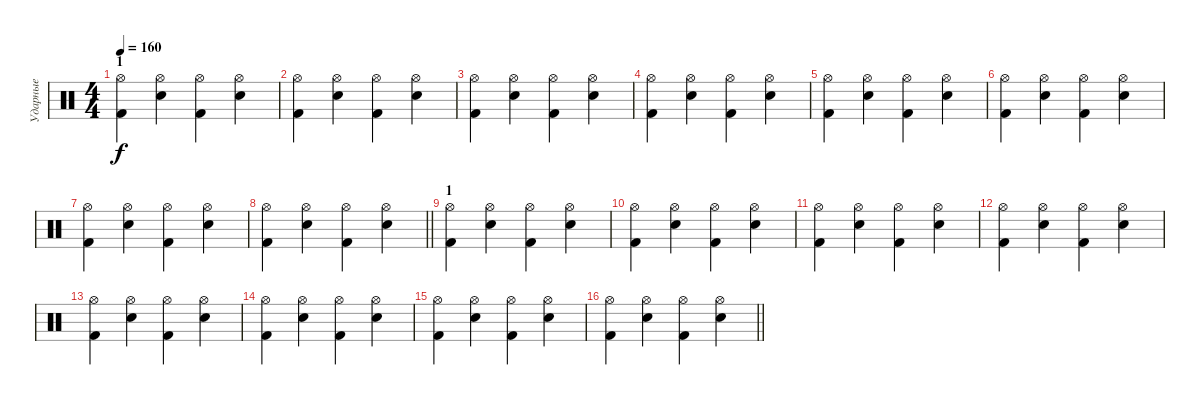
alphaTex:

\track ("Ударные" "Ударные") {instrument percussion}
\staff {score}
\articulation defaults
\ts (4 4)
\section ("" "1")
\tempo 160
\clef neutral
\ks c
("Hi-Hat (open)" "Kick (hit) 2").4{dy f} ("Hi-Hat (open)" "Electric Snare (hit)").4 ("Hi-Hat (open)" "Kick (hit) 2").4 ("Hi-Hat (open)" "Electric Snare (hit)").4 |
("Hi-Hat (open)" "Kick (hit) 2").4 ("Hi-Hat (open)" "Electric Snare (hit)").4 ("Hi-Hat (open)" "Kick (hit) 2").4 ("Hi-Hat (open)" "Electric Snare (hit)").4 |
("Hi-Hat (open)" "Kick (hit) 2").4 ("Hi-Hat (open)" "Electric Snare (hit)").4 ("Hi-Hat (open)" "Kick (hit) 2").4 ("Hi-Hat (open)" "Electric Snare (hit)").4 |
("Hi-Hat (open)" "Kick (hit) 2").4 ("Hi-Hat (open)" "Electric Snare (hit)").4 ("Hi-Hat (open)" "Kick (hit) 2").4 ("Hi-Hat (open)" "Electric Snare (hit)").4 |
("Hi-Hat (open)" "Kick (hit) 2").4 ("Hi-Hat (open)" "Electric Snare (hit)").4 ("Hi-Hat (open)" "Kick (hit) 2").4 ("Hi-Hat (open)" "Electric Snare (hit)").4 |
("Hi-Hat (open)" "Kick (hit) 2").4 ("Hi-Hat (open)" "Electric Snare (hit)").4 ("Hi-Hat (open)" "Kick (hit) 2").4 ("Hi-Hat (open)" "Electric Snare (hit)").4 |
("Hi-Hat (open)" "Kick (hit) 2").4 ("Hi-Hat (open)" "Electric Snare (hit)").4 ("Hi-Hat (open)" "Kick (hit) 2").4 ("Hi-Hat (open)" "Electric Snare (hit)").4 |
\barLineRight lightlight
("Hi-Hat (open)" "Kick (hit) 2").4 ("Hi-Hat (open)" "Electric Snare (hit)").4 ("Hi-Hat (open)" "Kick (hit) 2").4 ("Hi-Hat (open)" "Electric Snare (hit)").4 |
\section ("" "1")
("Hi-Hat (open)" "Kick (hit) 2").4 ("Hi-Hat (open)" "Electric Snare (hit)").4 ("Hi-Hat (open)" "Kick (hit) 2").4 ("Hi-Hat (open)" "Electric Snare (hit)").4 |
("Hi-Hat (open)" "Kick (hit) 2").4 ("Hi-Hat (open)" "Electric Snare (hit)").4 ("Hi-Hat (open)" "Kick (hit) 2").4 ("Hi-Hat (open)" "Electric Snare (hit)").4 |
("Hi-Hat (open)" "Kick (hit) 2").4 ("Hi-Hat (open)" "Electric Snare (hit)").4 ("Hi-Hat (open)" "Kick (hit) 2").4 ("Hi-Hat (open)" "Electric Snare (hit)").4 |
("Hi-Hat (open)" "Kick (hit) 2").4 ("Hi-Hat (open)" "Electric Snare (hit)").4 ("Hi-Hat (open)" "Kick (hit) 2").4 ("Hi-Hat (open)" "Electric Snare (hit)").4 |
("Hi-Hat (open)" "Kick (hit) 2").4 ("Hi-Hat (open)" "Electric Snare (hit)").4 ("Hi-Hat (open)" "Kick (hit) 2").4 ("Hi-Hat (open)" "Electric Snare (hit)").4 |
("Hi-Hat (open)" "Kick (hit) 2").4 ("Hi-Hat (open)" "Electric Snare (hit)").4 ("Hi-Hat (open)" "Kick (hit) 2").4 ("Hi-Hat (open)" "Electric Snare (hit)").4 |
("Hi-Hat (open)" "Kick (hit) 2").4 ("Hi-Hat (open)" "Electric Snare (hit)").4 ("Hi-Hat (open)" "Kick (hit) 2").4 ("Hi-Hat (open)" "Electric Snare (hit)").4 |
\barLineRight lightlight
("Hi-Hat (open)" "Kick (hit) 2").4 ("Hi-Hat (open)" "Electric Snare (hit)").4 ("Hi-Hat (open)" "Kick (hit) 2").4 ("Hi-Hat (open)" "Electric Snare (hit)").4
